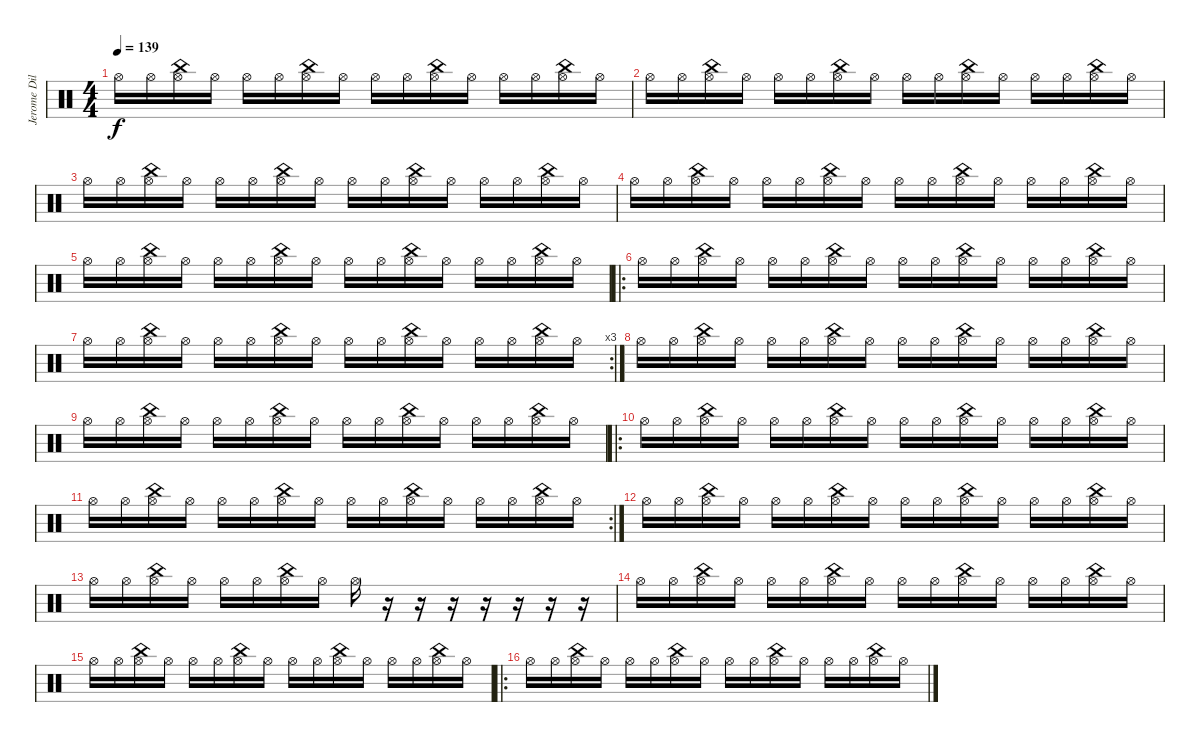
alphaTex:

\track ("Jerome Dillon - Batería 2" "Jerome Dil") {instrument percussion}
\staff {score}
\articulation defaults
\ts (4 4)
\tempo 139
\clef neutral
\ks c "Hi-Hat (open)".16{dy f} "Hi-Hat (open)".16
("Hi-Hat (open)" "China (hit)").16 "Hi-Hat (open)".16 "Hi-Hat (open)".16 "Hi-Hat (open)".16 ("Hi-Hat (open)" "China (hit)").16 "Hi-Hat (open)".16 "Hi-Hat (open)".16 "Hi-Hat (open)".16 ("Hi-Hat (open)" "China (hit)").16 "Hi-Hat (open)".16 "Hi-Hat (open)".16 "Hi-Hat (open)".16 ("Hi-Hat (open)" "China (hit)").16 "Hi-Hat (open)".16 |
"Hi-Hat (open)".16 "Hi-Hat (open)".16 ("Hi-Hat (open)" "China (hit)").16 "Hi-Hat (open)".16 "Hi-Hat (open)".16 "Hi-Hat (open)".16 ("Hi-Hat (open)" "China (hit)").16 "Hi-Hat (open)".16 "Hi-Hat (open)".16 "Hi-Hat (open)".16 ("Hi-Hat (open)" "China (hit)").16 "Hi-Hat (open)".16 "Hi-Hat (open)".16 "Hi-Hat (open)".16 ("Hi-Hat (open)" "China (hit)").16 "Hi-Hat (open)".16 |
"Hi-Hat (open)".16 "Hi-Hat (open)".16 ("Hi-Hat (open)" "China (hit)").16 "Hi-Hat (open)".16 "Hi-Hat (open)".16 "Hi-Hat (open)".16 ("Hi-Hat (open)" "China (hit)").16 "Hi-Hat (open)".16 "Hi-Hat (open)".16 "Hi-Hat (open)".16 ("Hi-Hat (open)" "China (hit)").16 "Hi-Hat (open)".16 "Hi-Hat (open)".16 "Hi-Hat (open)".16 ("Hi-Hat (open)" "China (hit)").16 "Hi-Hat (open)".16 |
"Hi-Hat (open)".16 "Hi-Hat (open)".16 ("Hi-Hat (open)" "China (hit)").16 "Hi-Hat (open)".16 "Hi-Hat (open)".16 "Hi-Hat (open)".16 ("Hi-Hat (open)" "China (hit)").16 "Hi-Hat (open)".16 "Hi-Hat (open)".16 "Hi-Hat (open)".16 ("Hi-Hat (open)" "China (hit)").16 "Hi-Hat (open)".16 "Hi-Hat (open)".16 "Hi-Hat (open)".16 ("Hi-Hat (open)" "China (hit)").16 "Hi-Hat (open)".16 |
"Hi-Hat (open)".16 "Hi-Hat (open)".16 ("Hi-Hat (open)" "China (hit)").16 "Hi-Hat (open)".16 "Hi-Hat (open)".16 "Hi-Hat (open)".16 ("Hi-Hat (open)" "China (hit)").16 "Hi-Hat (open)".16 "Hi-Hat (open)".16 "Hi-Hat (open)".16 ("Hi-Hat (open)" "China (hit)").16 "Hi-Hat (open)".16 "Hi-Hat (open)".16 "Hi-Hat (open)".16 ("Hi-Hat (open)" "China (hit)").16 "Hi-Hat (open)".16 |
\ro "Hi-Hat (open)".16 "Hi-Hat (open)".16
("Hi-Hat (open)" "China (hit)").16 "Hi-Hat (open)".16 "Hi-Hat (open)".16 "Hi-Hat (open)".16 ("Hi-Hat (open)" "China (hit)").16 "Hi-Hat (open)".16 "Hi-Hat (open)".16 "Hi-Hat (open)".16 ("Hi-Hat (open)" "China (hit)").16 "Hi-Hat (open)".16 "Hi-Hat (open)".16 "Hi-Hat (open)".16 ("Hi-Hat (open)" "China (hit)").16 "Hi-Hat (open)".16 |
\rc 3 "Hi-Hat (open)".16 "Hi-Hat (open)".16
("Hi-Hat (open)" "China (hit)").16 "Hi-Hat (open)".16 "Hi-Hat (open)".16 "Hi-Hat (open)".16 ("Hi-Hat (open)" "China (hit)").16 "Hi-Hat (open)".16 "Hi-Hat (open)".16 "Hi-Hat (open)".16 ("Hi-Hat (open)" "China (hit)").16 "Hi-Hat (open)".16 "Hi-Hat (open)".16 "Hi-Hat (open)".16 ("Hi-Hat (open)" "China (hit)").16 "Hi-Hat (open)".16 |
"Hi-Hat (open)".16 "Hi-Hat (open)".16 ("Hi-Hat (open)" "China (hit)").16 "Hi-Hat (open)".16 "Hi-Hat (open)".16 "Hi-Hat (open)".16 ("Hi-Hat (open)" "China (hit)").16 "Hi-Hat (open)".16 "Hi-Hat (open)".16 "Hi-Hat (open)".16 ("Hi-Hat (open)" "China (hit)").16 "Hi-Hat (open)".16 "Hi-Hat (open)".16 "Hi-Hat (open)".16 ("Hi-Hat (open)" "China (hit)").16 "Hi-Hat (open)".16 |
"Hi-Hat (open)".16 "Hi-Hat (open)".16 ("Hi-Hat (open)" "China (hit)").16 "Hi-Hat (open)".16 "Hi-Hat (open)".16 "Hi-Hat (open)".16 ("Hi-Hat (open)" "China (hit)").16 "Hi-Hat (open)".16 "Hi-Hat (open)".16 "Hi-Hat (open)".16 ("Hi-Hat (open)" "China (hit)").16 "Hi-Hat (open)".16 "Hi-Hat (open)".16 "Hi-Hat (open)".16 ("Hi-Hat (open)" "China (hit)").16 "Hi-Hat (open)".16 |
\ro "Hi-Hat (open)".16 "Hi-Hat (open)".16
("Hi-Hat (open)" "China (hit)").16 "Hi-Hat (open)".16 "Hi-Hat (open)".16 "Hi-Hat (open)".16 ("Hi-Hat (open)" "China (hit)").16 "Hi-Hat (open)".16 "Hi-Hat (open)".16 "Hi-Hat (open)".16 ("Hi-Hat (open)" "China (hit)").16 "Hi-Hat (open)".16 "Hi-Hat (open)".16 "Hi-Hat (open)".16 ("Hi-Hat (open)" "China (hit)").16 "Hi-Hat (open)".16 |
\rc 2 "Hi-Hat (open)".16 "Hi-Hat (open)".16
("Hi-Hat (open)" "China (hit)").16 "Hi-Hat (open)".16 "Hi-Hat (open)".16 "Hi-Hat (open)".16 ("Hi-Hat (open)" "China (hit)").16 "Hi-Hat (open)".16 "Hi-Hat (open)".16 "Hi-Hat (open)".16 ("Hi-Hat (open)" "China (hit)").16 "Hi-Hat (open)".16 "Hi-Hat (open)".16 "Hi-Hat (open)".16 ("Hi-Hat (open)" "China (hit)").16 "Hi-Hat (open)".16 |
"Hi-Hat (open)".16 "Hi-Hat (open)".16 ("Hi-Hat (open)" "China (hit)").16 "Hi-Hat (open)".16 "Hi-Hat (open)".16 "Hi-Hat (open)".16 ("Hi-Hat (open)" "China (hit)").16 "Hi-Hat (open)".16 "Hi-Hat (open)".16 "Hi-Hat (open)".16 ("Hi-Hat (open)" "China (hit)").16 "Hi-Hat (open)".16 "Hi-Hat (open)".16 "Hi-Hat (open)".16 ("Hi-Hat (open)" "China (hit)").16 "Hi-Hat (open)".16 |
"Hi-Hat (open)".16 "Hi-Hat (open)".16 ("Hi-Hat (open)" "China (hit)").16 "Hi-Hat (open)".16 "Hi-Hat (open)".16 "Hi-Hat (open)".16 ("Hi-Hat (open)" "China (hit)").16 "Hi-Hat (open)".16 "Hi-Hat (open)".16 r.16 r.16 r.16 r.16 r.16 r.16 r.16 |
"Hi-Hat (open)".16 "Hi-Hat (open)".16 ("Hi-Hat (open)" "China (hit)").16 "Hi-Hat (open)".16 "Hi-Hat (open)".16 "Hi-Hat (open)".16 ("Hi-Hat (open)" "China (hit)").16 "Hi-Hat (open)".16 "Hi-Hat (open)".16 "Hi-Hat (open)".16 ("Hi-Hat (open)" "China (hit)").16 "Hi-Hat (open)".16 "Hi-Hat (open)".16 "Hi-Hat (open)".16 ("Hi-Hat (open)" "China (hit)").16 "Hi-Hat (open)".16 |
"Hi-Hat (open)".16 "Hi-Hat (open)".16 ("Hi-Hat (open)" "China (hit)").16 "Hi-Hat (open)".16 "Hi-Hat (open)".16 "Hi-Hat (open)".16 ("Hi-Hat (open)" "China (hit)").16 "Hi-Hat (open)".16 "Hi-Hat (open)".16 "Hi-Hat (open)".16 ("Hi-Hat (open)" "China (hit)").16 "Hi-Hat (open)".16 "Hi-Hat (open)".16 "Hi-Hat (open)".16 ("Hi-Hat (open)" "China (hit)").16 "Hi-Hat (open)".16 |
\ro "Hi-Hat (open)".16 "Hi-Hat (open)".16
("Hi-Hat (open)" "China (hit)").16 "Hi-Hat (open)".16 "Hi-Hat (open)".16 "Hi-Hat (open)".16 ("Hi-Hat (open)" "China (hit)").16 "Hi-Hat (open)".16 "Hi-Hat (open)".16 "Hi-Hat (open)".16 ("Hi-Hat (open)" "China (hit)").16 "Hi-Hat (open)".16 "Hi-Hat (open)".16 "Hi-Hat (open)".16 ("Hi-Hat (open)" "China (hit)").16 "Hi-Hat (open)".16
